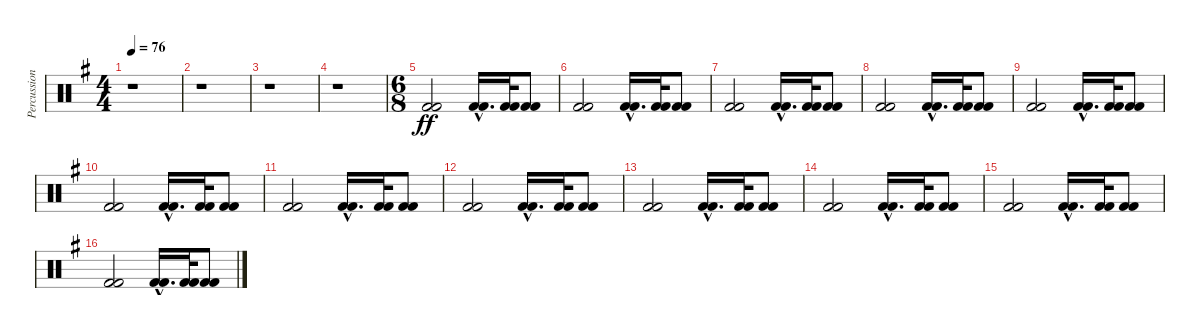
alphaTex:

\track ("Percussions 1" "Percussion") {instrument percussion}
\staff {score}
\articulation defaults
\ts (4 4)
\tempo 76
\clef neutral
\ks g
r.1{dy f} |
r.1 |
r.1 |
r.1 |
\ts (6 8)
("Kick (hit) 2" "Kick (hit) 2").2{dy ff} ("Kick (hit) 2"{hac} "Kick (hit) 2"{hac}).16{d} ("Kick (hit) 2" "Kick (hit) 2").32 ("Kick (hit) 2" "Kick (hit) 2").8 |
("Kick (hit) 2" "Kick (hit) 2").2 ("Kick (hit) 2"{hac} "Kick (hit) 2"{hac}).16{d} ("Kick (hit) 2" "Kick (hit) 2").32 ("Kick (hit) 2" "Kick (hit) 2").8 |
("Kick (hit) 2" "Kick (hit) 2").2 ("Kick (hit) 2"{hac} "Kick (hit) 2"{hac}).16{d} ("Kick (hit) 2" "Kick (hit) 2").32 ("Kick (hit) 2" "Kick (hit) 2").8 |
("Kick (hit) 2" "Kick (hit) 2").2 ("Kick (hit) 2"{hac} "Kick (hit) 2"{hac}).16{d} ("Kick (hit) 2" "Kick (hit) 2").32 ("Kick (hit) 2" "Kick (hit) 2").8 |
("Kick (hit) 2" "Kick (hit) 2").2 ("Kick (hit) 2"{hac} "Kick (hit) 2"{hac}).16{d} ("Kick (hit) 2" "Kick (hit) 2").32 ("Kick (hit) 2" "Kick (hit) 2").8 |
("Kick (hit) 2" "Kick (hit) 2").2 ("Kick (hit) 2"{hac} "Kick (hit) 2"{hac}).16{d} ("Kick (hit) 2" "Kick (hit) 2").32 ("Kick (hit) 2" "Kick (hit) 2").8 |
("Kick (hit) 2" "Kick (hit) 2").2 ("Kick (hit) 2"{hac} "Kick (hit) 2"{hac}).16{d} ("Kick (hit) 2" "Kick (hit) 2").32 ("Kick (hit) 2" "Kick (hit) 2").8 |
("Kick (hit) 2" "Kick (hit) 2").2 ("Kick (hit) 2"{hac} "Kick (hit) 2"{hac}).16{d} ("Kick (hit) 2" "Kick (hit) 2").32 ("Kick (hit) 2" "Kick (hit) 2").8 |
("Kick (hit) 2" "Kick (hit) 2").2 ("Kick (hit) 2"{hac} "Kick (hit) 2"{hac}).16{d} ("Kick (hit) 2" "Kick (hit) 2").32 ("Kick (hit) 2" "Kick (hit) 2").8 |
("Kick (hit) 2" "Kick (hit) 2").2 ("Kick (hit) 2"{hac} "Kick (hit) 2"{hac}).16{d} ("Kick (hit) 2" "Kick (hit) 2").32 ("Kick (hit) 2" "Kick (hit) 2").8 |
("Kick (hit) 2" "Kick (hit) 2").2 ("Kick (hit) 2"{hac} "Kick (hit) 2"{hac}).16{d} ("Kick (hit) 2" "Kick (hit) 2").32 ("Kick (hit) 2" "Kick (hit) 2").8 |
("Kick (hit) 2" "Kick (hit) 2").2 ("Kick (hit) 2"{hac} "Kick (hit) 2"{hac}).16{d} ("Kick (hit) 2" "Kick (hit) 2").32 ("Kick (hit) 2" "Kick (hit) 2").8
